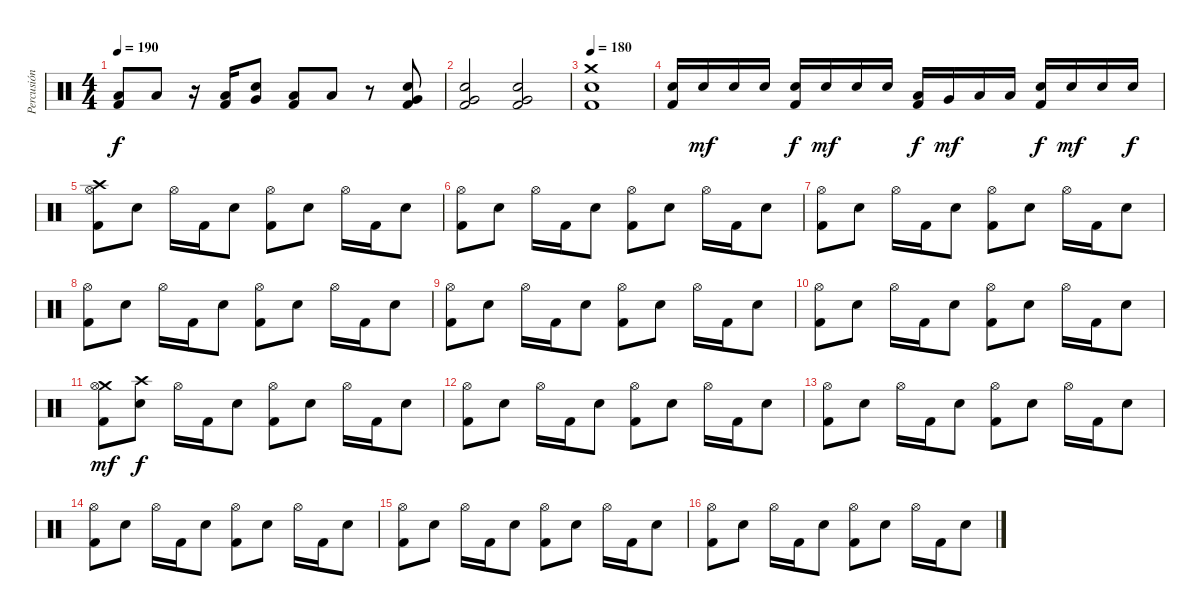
\track ("Percusión" "Percusión") {instrument percussion}
\staff {score}
\articulation defaults
\ts (4 4)
\tempo 190
\clef neutral
\ks c
("Low Floor Tom (hit)" "Kick (hit) 2").8{dy f} "Low Floor Tom (hit)".8 r.16 ("Low Floor Tom (hit)" "Kick (hit) 2").16 ("Very Low Tom (hit)" "Electric Snare (hit)").8 ("Low Floor Tom (hit)" "Kick (hit) 2").8 "Low Floor Tom (hit)".8 r.8 ("Very Low Tom (hit)" "Electric Snare (hit)" "Kick (hit) 2").8 |
("Very Low Tom (hit)" "Electric Snare (hit)" "Kick (hit) 2").2 ("Very Low Tom (hit)" "Electric Snare (hit)" "Kick (hit) 2").2 |
\tempo 180
("Crash medium (hit)" "Electric Snare (hit)" "Kick (hit) 2").1 |
("Electric Snare (hit)" "Kick (hit) 2").16 "Electric Snare (hit)".16{dy mf} "Electric Snare (hit)".16 "Electric Snare (hit)".16 ("Electric Snare (hit)" "Kick (hit) 2").16{dy f} "Electric Snare (hit)".16{dy mf} "Electric Snare (hit)".16 "Electric Snare (hit)".16 ("Low Tom (hit)" "Kick (hit) 2").16{dy f} "Very Low Tom (hit)".16{dy mf} "Low Floor Tom (hit)".16 "Low Floor Tom (hit)".16 ("Electric Snare (hit)" "Kick (hit) 2").16{dy f} "Electric Snare (hit)".16{dy mf} "Electric Snare (hit)".16 "Electric Snare (hit)".16{dy f} |
("Crash high (hit)" "Hi-Hat (open)" "Kick (hit) 2").8 "Electric Snare (hit)".8 "Hi-Hat (open)".16 "Kick (hit) 2".16 "Electric Snare (hit)".8 ("Hi-Hat (open)" "Kick (hit) 2").8 "Electric Snare (hit)".8 "Hi-Hat (open)".16 "Kick (hit) 2".16 "Electric Snare (hit)".8 |
("Hi-Hat (open)" "Kick (hit) 2").8 "Electric Snare (hit)".8 "Hi-Hat (open)".16 "Kick (hit) 2".16 "Electric Snare (hit)".8 ("Hi-Hat (open)" "Kick (hit) 2").8 "Electric Snare (hit)".8 "Hi-Hat (open)".16 "Kick (hit) 2".16 "Electric Snare (hit)".8 |
("Hi-Hat (open)" "Kick (hit) 2").8 "Electric Snare (hit)".8 "Hi-Hat (open)".16 "Kick (hit) 2".16 "Electric Snare (hit)".8 ("Hi-Hat (open)" "Kick (hit) 2").8 "Electric Snare (hit)".8 "Hi-Hat (open)".16 "Kick (hit) 2".16 "Electric Snare (hit)".8 |
("Hi-Hat (open)" "Kick (hit) 2").8 "Electric Snare (hit)".8 "Hi-Hat (open)".16 "Kick (hit) 2".16 "Electric Snare (hit)".8 ("Hi-Hat (open)" "Kick (hit) 2").8 "Electric Snare (hit)".8 "Hi-Hat (open)".16 "Kick (hit) 2".16 "Electric Snare (hit)".8 |
("Hi-Hat (open)" "Kick (hit) 2").8 "Electric Snare (hit)".8 "Hi-Hat (open)".16 "Kick (hit) 2".16 "Electric Snare (hit)".8 ("Hi-Hat (open)" "Kick (hit) 2").8 "Electric Snare (hit)".8 "Hi-Hat (open)".16 "Kick (hit) 2".16 "Electric Snare (hit)".8 |
("Hi-Hat (open)" "Kick (hit) 2").8 "Electric Snare (hit)".8 "Hi-Hat (open)".16 "Kick (hit) 2".16 "Electric Snare (hit)".8 ("Hi-Hat (open)" "Kick (hit) 2").8 "Electric Snare (hit)".8 "Hi-Hat (open)".16 "Kick (hit) 2".16 "Electric Snare (hit)".8 |
("Crash medium (hit)" "Hi-Hat (open)" "Kick (hit) 2").8{dy mf} ("Crash high (hit)" "Electric Snare (hit)").8{dy f} "Hi-Hat (open)".16 "Kick (hit) 2".16 "Electric Snare (hit)".8 ("Hi-Hat (open)" "Kick (hit) 2").8 "Electric Snare (hit)".8 "Hi-Hat (open)".16 "Kick (hit) 2".16 "Electric Snare (hit)".8 |
("Hi-Hat (open)" "Kick (hit) 2").8 "Electric Snare (hit)".8 "Hi-Hat (open)".16 "Kick (hit) 2".16 "Electric Snare (hit)".8 ("Hi-Hat (open)" "Kick (hit) 2").8 "Electric Snare (hit)".8 "Hi-Hat (open)".16 "Kick (hit) 2".16 "Electric Snare (hit)".8 |
("Hi-Hat (open)" "Kick (hit) 2").8 "Electric Snare (hit)".8 "Hi-Hat (open)".16 "Kick (hit) 2".16 "Electric Snare (hit)".8 ("Hi-Hat (open)" "Kick (hit) 2").8 "Electric Snare (hit)".8 "Hi-Hat (open)".16 "Kick (hit) 2".16 "Electric Snare (hit)".8 |
("Hi-Hat (open)" "Kick (hit) 2").8 "Electric Snare (hit)".8 "Hi-Hat (open)".16 "Kick (hit) 2".16 "Electric Snare (hit)".8 ("Hi-Hat (open)" "Kick (hit) 2").8 "Electric Snare (hit)".8 "Hi-Hat (open)".16 "Kick (hit) 2".16 "Electric Snare (hit)".8 |
("Hi-Hat (open)" "Kick (hit) 2").8 "Electric Snare (hit)".8 "Hi-Hat (open)".16 "Kick (hit) 2".16 "Electric Snare (hit)".8 ("Hi-Hat (open)" "Kick (hit) 2").8 "Electric Snare (hit)".8 "Hi-Hat (open)".16 "Kick (hit) 2".16 "Electric Snare (hit)".8 |
("Hi-Hat (open)" "Kick (hit) 2").8 "Electric Snare (hit)".8 "Hi-Hat (open)".16 "Kick (hit) 2".16 "Electric Snare (hit)".8 ("Hi-Hat (open)" "Kick (hit) 2").8 "Electric Snare (hit)".8 "Hi-Hat (open)".16 "Kick (hit) 2".16 "Electric Snare (hit)".8
